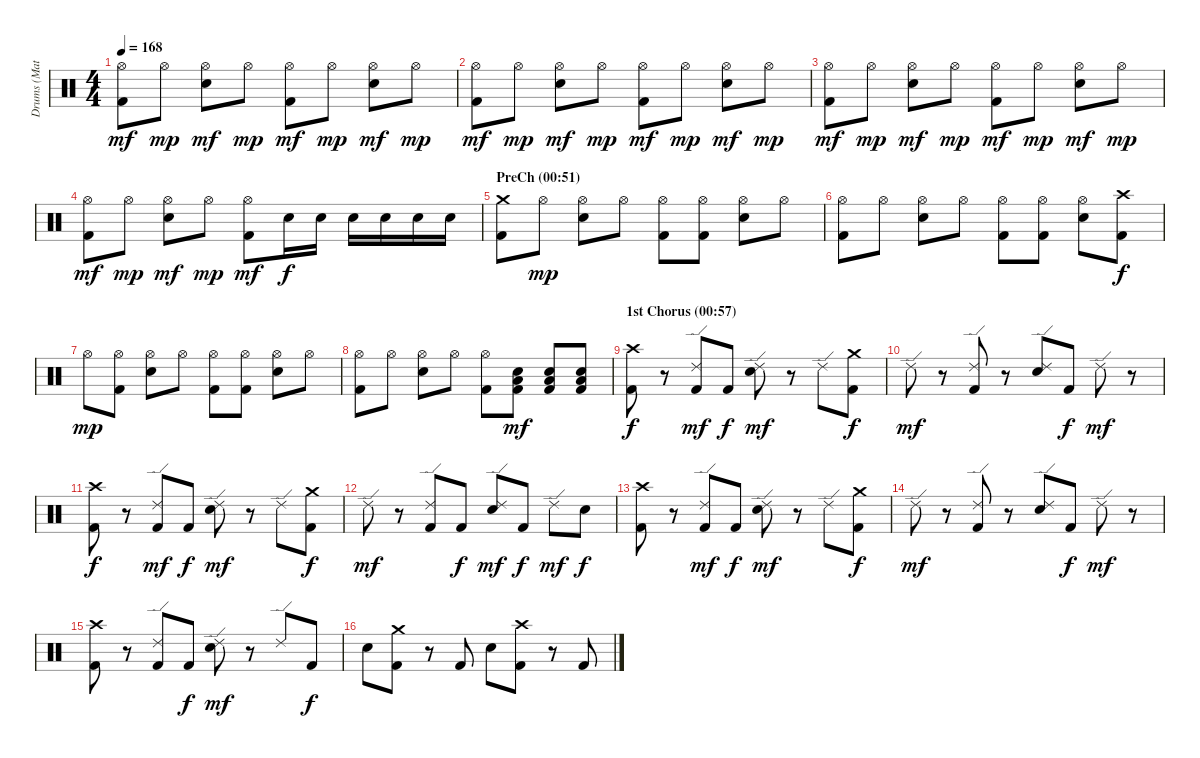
\track ("Drums (Matt Sorum)" "Drums (Mat") {instrument percussion}
\staff {score}
\articulation defaults
\ts (4 4)
\tempo 168
\clef neutral
\ks c
("Hi-Hat (open)" "Kick (hit) 2").8{dy mf} "Hi-Hat (open)".8{dy mp} ("Hi-Hat (open)" "Electric Snare (hit)").8{dy mf} "Hi-Hat (open)".8{dy mp} ("Hi-Hat (open)" "Kick (hit) 2").8{dy mf} "Hi-Hat (open)".8{dy mp} ("Hi-Hat (open)" "Electric Snare (hit)").8{dy mf} "Hi-Hat (open)".8{dy mp} |
("Hi-Hat (open)" "Kick (hit) 2").8{dy mf} "Hi-Hat (open)".8{dy mp} ("Hi-Hat (open)" "Electric Snare (hit)").8{dy mf} "Hi-Hat (open)".8{dy mp} ("Hi-Hat (open)" "Kick (hit) 2").8{dy mf} "Hi-Hat (open)".8{dy mp} ("Hi-Hat (open)" "Electric Snare (hit)").8{dy mf} "Hi-Hat (open)".8{dy mp} |
("Hi-Hat (open)" "Kick (hit) 2").8{dy mf} "Hi-Hat (open)".8{dy mp} ("Hi-Hat (open)" "Electric Snare (hit)").8{dy mf} "Hi-Hat (open)".8{dy mp} ("Hi-Hat (open)" "Kick (hit) 2").8{dy mf} "Hi-Hat (open)".8{dy mp} ("Hi-Hat (open)" "Electric Snare (hit)").8{dy mf} "Hi-Hat (open)".8{dy mp} |
("Hi-Hat (open)" "Kick (hit) 2").8{dy mf} "Hi-Hat (open)".8{dy mp} ("Hi-Hat (open)" "Electric Snare (hit)").8{dy mf} "Hi-Hat (open)".8{dy mp} ("Hi-Hat (open)" "Kick (hit) 2").8{dy mf} "Electric Snare (hit)".16{dy f} "Electric Snare (hit)".16 "Electric Snare (hit)".16 "Electric Snare (hit)".16 "Electric Snare (hit)".16 "Electric Snare (hit)".16 |
\section ("" "PreCh (00:51)")
("Crash medium (hit)" "Kick (hit) 2").8 "Hi-Hat (open)".8{dy mp} ("Hi-Hat (open)" "Electric Snare (hit)").8 "Hi-Hat (open)".8 ("Hi-Hat (open)" "Kick (hit) 2").8 ("Hi-Hat (open)" "Kick (hit) 2").8 ("Hi-Hat (open)" "Electric Snare (hit)").8 "Hi-Hat (open)".8 |
("Hi-Hat (open)" "Kick (hit) 2").8 "Hi-Hat (open)".8 ("Hi-Hat (open)" "Electric Snare (hit)").8 "Hi-Hat (open)".8 ("Hi-Hat (open)" "Kick (hit) 2").8 ("Hi-Hat (open)" "Kick (hit) 2").8 ("Hi-Hat (open)" "Electric Snare (hit)").8 ("Crash high (hit)" "Kick (hit) 2").8{dy f} |
"Hi-Hat (open)".8{dy mp} ("Hi-Hat (open)" "Kick (hit) 2").8 ("Hi-Hat (open)" "Electric Snare (hit)").8 "Hi-Hat (open)".8 ("Hi-Hat (open)" "Kick (hit) 2").8 ("Hi-Hat (open)" "Kick (hit) 2").8 ("Hi-Hat (open)" "Electric Snare (hit)").8 "Hi-Hat (open)".8 |
("Hi-Hat (open)" "Kick (hit) 2").8 "Hi-Hat (open)".8 ("Hi-Hat (open)" "Electric Snare (hit)").8 "Hi-Hat (open)".8 ("Hi-Hat (open)" "Kick (hit) 2").8 ("Electric Snare (hit)" "Low Tom (hit)" "Kick (hit) 2").8{dy mf} ("Electric Snare (hit)" "Low Tom (hit)" "Kick (hit) 2").8 ("Electric Snare (hit)" "Low Tom (hit)" "Kick (hit) 2").8 |
\section ("" "1st Chorus (00:57)")
("Crash high (hit)" "Kick (hit) 2").8{dy f} r.8 ("Ride (edge) 2" "Kick (hit) 2").8{dy mf} "Kick (hit) 2".8{dy f} ("Ride (edge) 2" "Electric Snare (hit)").8{dy mf} r.8 "Ride (edge) 2".8 ("Crash medium (hit)" "Kick (hit) 2").8{dy f} |
"Ride (edge) 2".8{dy mf} r.8 ("Ride (edge) 2" "Kick (hit) 2").8 r.8 ("Ride (edge) 2" "Electric Snare (hit)").8 "Kick (hit) 2".8{dy f} "Ride (edge) 2".8{dy mf} r.8 |
("Crash high (hit)" "Kick (hit) 2").8{dy f} r.8 ("Ride (edge) 2" "Kick (hit) 2").8{dy mf} "Kick (hit) 2".8{dy f} ("Ride (edge) 2" "Electric Snare (hit)").8{dy mf} r.8 "Ride (edge) 2".8 ("Crash medium (hit)" "Kick (hit) 2").8{dy f} |
"Ride (edge) 2".8{dy mf} r.8 ("Ride (edge) 2" "Kick (hit) 2").8 "Kick (hit) 2".8{dy f} ("Ride (edge) 2" "Electric Snare (hit)").8{dy mf} "Kick (hit) 2".8{dy f} "Ride (edge) 2".8{dy mf} "Electric Snare (hit)".8{dy f} |
("Crash high (hit)" "Kick (hit) 2").8 r.8 ("Ride (edge) 2" "Kick (hit) 2").8{dy mf} "Kick (hit) 2".8{dy f} ("Ride (edge) 2" "Electric Snare (hit)").8{dy mf} r.8 "Ride (edge) 2".8 ("Crash medium (hit)" "Kick (hit) 2").8{dy f} |
"Ride (edge) 2".8{dy mf} r.8 ("Ride (edge) 2" "Kick (hit) 2").8 r.8 ("Ride (edge) 2" "Electric Snare (hit)").8 "Kick (hit) 2".8{dy f} "Ride (edge) 2".8{dy mf} r.8 |
("Crash high (hit)" "Kick (hit) 2").8 r.8 ("Ride (edge) 2" "Kick (hit) 2").8 "Kick (hit) 2".8{dy f} ("Ride (edge) 2" "Electric Snare (hit)").8{dy mf} r.8 "Ride (edge) 2".8 "Kick (hit) 2".8{dy f} |
"Electric Snare (hit)".8 ("Crash medium (hit)" "Kick (hit) 2").8 r.8 "Kick (hit) 2".8 "Electric Snare (hit)".8 ("Crash high (hit)" "Kick (hit) 2").8 r.8 "Kick (hit) 2".8
